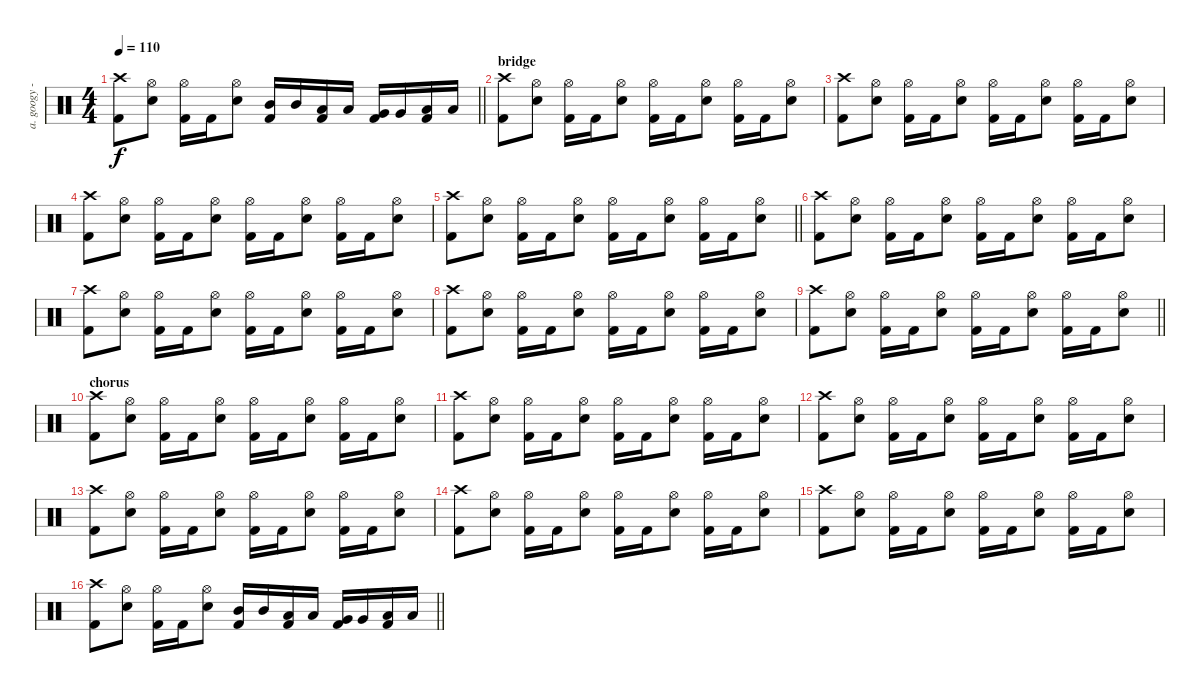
\track ("a. googy - drums" "a. googy -") {instrument percussion}
\staff {score}
\articulation defaults
\ts (4 4)
\tempo 110
\clef neutral
\barLineRight lightlight
\ks c
("Crash high (hit)" "Kick (hit) 2").8{dy f} ("Hi-Hat (open)" "Snare (hit) 2").8 ("Hi-Hat (open)" "Kick (hit) 2").16 "Kick (hit) 2".16 ("Hi-Hat (open)" "Snare (hit) 2").8 ("Mid Tom (hit)" "Kick (hit) 2").16 "Mid Tom (hit)".16 ("Low Tom (hit)" "Kick (hit) 2").16 "Low Tom (hit)".16 ("Very Low Tom (hit)" "Kick (hit) 2").16 "Very Low Tom (hit)".16 ("Low Floor Tom (hit)" "Kick (hit) 2").16 "Low Floor Tom (hit)".16 |
\section ("" "bridge")
("Crash high (hit)" "Kick (hit) 2").8 ("Hi-Hat (open)" "Snare (hit) 2").8 ("Hi-Hat (open)" "Kick (hit) 2").16 "Kick (hit) 2".16 ("Hi-Hat (open)" "Snare (hit) 2").8 ("Hi-Hat (open)" "Kick (hit) 2").16 "Kick (hit) 2".16 ("Hi-Hat (open)" "Snare (hit) 2").8 ("Hi-Hat (open)" "Kick (hit) 2").16 "Kick (hit) 2".16 ("Hi-Hat (open)" "Snare (hit) 2").8 |
("Crash high (hit)" "Kick (hit) 2").8 ("Hi-Hat (open)" "Snare (hit) 2").8 ("Hi-Hat (open)" "Kick (hit) 2").16 "Kick (hit) 2".16 ("Hi-Hat (open)" "Snare (hit) 2").8 ("Hi-Hat (open)" "Kick (hit) 2").16 "Kick (hit) 2".16 ("Hi-Hat (open)" "Snare (hit) 2").8 ("Hi-Hat (open)" "Kick (hit) 2").16 "Kick (hit) 2".16 ("Hi-Hat (open)" "Snare (hit) 2").8 |
("Crash high (hit)" "Kick (hit) 2").8 ("Hi-Hat (open)" "Snare (hit) 2").8 ("Hi-Hat (open)" "Kick (hit) 2").16 "Kick (hit) 2".16 ("Hi-Hat (open)" "Snare (hit) 2").8 ("Hi-Hat (open)" "Kick (hit) 2").16 "Kick (hit) 2".16 ("Hi-Hat (open)" "Snare (hit) 2").8 ("Hi-Hat (open)" "Kick (hit) 2").16 "Kick (hit) 2".16 ("Hi-Hat (open)" "Snare (hit) 2").8 |
\barLineRight lightlight
("Crash high (hit)" "Kick (hit) 2").8 ("Hi-Hat (open)" "Snare (hit) 2").8 ("Hi-Hat (open)" "Kick (hit) 2").16 "Kick (hit) 2".16 ("Hi-Hat (open)" "Snare (hit) 2").8 ("Hi-Hat (open)" "Kick (hit) 2").16 "Kick (hit) 2".16 ("Hi-Hat (open)" "Snare (hit) 2").8 ("Hi-Hat (open)" "Kick (hit) 2").16 "Kick (hit) 2".16 ("Hi-Hat (open)" "Snare (hit) 2").8 |
("Crash high (hit)" "Kick (hit) 2").8 ("Hi-Hat (open)" "Snare (hit) 2").8 ("Hi-Hat (open)" "Kick (hit) 2").16 "Kick (hit) 2".16 ("Hi-Hat (open)" "Snare (hit) 2").8 ("Hi-Hat (open)" "Kick (hit) 2").16 "Kick (hit) 2".16 ("Hi-Hat (open)" "Snare (hit) 2").8 ("Hi-Hat (open)" "Kick (hit) 2").16 "Kick (hit) 2".16 ("Hi-Hat (open)" "Snare (hit) 2").8 |
("Crash high (hit)" "Kick (hit) 2").8 ("Hi-Hat (open)" "Snare (hit) 2").8 ("Hi-Hat (open)" "Kick (hit) 2").16 "Kick (hit) 2".16 ("Hi-Hat (open)" "Snare (hit) 2").8 ("Hi-Hat (open)" "Kick (hit) 2").16 "Kick (hit) 2".16 ("Hi-Hat (open)" "Snare (hit) 2").8 ("Hi-Hat (open)" "Kick (hit) 2").16 "Kick (hit) 2".16 ("Hi-Hat (open)" "Snare (hit) 2").8 |
("Crash high (hit)" "Kick (hit) 2").8 ("Hi-Hat (open)" "Snare (hit) 2").8 ("Hi-Hat (open)" "Kick (hit) 2").16 "Kick (hit) 2".16 ("Hi-Hat (open)" "Snare (hit) 2").8 ("Hi-Hat (open)" "Kick (hit) 2").16 "Kick (hit) 2".16 ("Hi-Hat (open)" "Snare (hit) 2").8 ("Hi-Hat (open)" "Kick (hit) 2").16 "Kick (hit) 2".16 ("Hi-Hat (open)" "Snare (hit) 2").8 |
\barLineRight lightlight
("Crash high (hit)" "Kick (hit) 2").8 ("Hi-Hat (open)" "Snare (hit) 2").8 ("Hi-Hat (open)" "Kick (hit) 2").16 "Kick (hit) 2".16 ("Hi-Hat (open)" "Snare (hit) 2").8 ("Hi-Hat (open)" "Kick (hit) 2").16 "Kick (hit) 2".16 ("Hi-Hat (open)" "Snare (hit) 2").8 ("Hi-Hat (open)" "Kick (hit) 2").16 "Kick (hit) 2".16 ("Hi-Hat (open)" "Snare (hit) 2").8 |
\section ("" "chorus")
("Crash high (hit)" "Kick (hit) 2").8 ("Hi-Hat (open)" "Snare (hit) 2").8 ("Hi-Hat (open)" "Kick (hit) 2").16 "Kick (hit) 2".16 ("Hi-Hat (open)" "Snare (hit) 2").8 ("Hi-Hat (open)" "Kick (hit) 2").16 "Kick (hit) 2".16 ("Hi-Hat (open)" "Snare (hit) 2").8 ("Hi-Hat (open)" "Kick (hit) 2").16 "Kick (hit) 2".16 ("Hi-Hat (open)" "Snare (hit) 2").8 |
("Crash high (hit)" "Kick (hit) 2").8 ("Hi-Hat (open)" "Snare (hit) 2").8 ("Hi-Hat (open)" "Kick (hit) 2").16 "Kick (hit) 2".16 ("Hi-Hat (open)" "Snare (hit) 2").8 ("Hi-Hat (open)" "Kick (hit) 2").16 "Kick (hit) 2".16 ("Hi-Hat (open)" "Snare (hit) 2").8 ("Hi-Hat (open)" "Kick (hit) 2").16 "Kick (hit) 2".16 ("Hi-Hat (open)" "Snare (hit) 2").8 |
("Crash high (hit)" "Kick (hit) 2").8 ("Hi-Hat (open)" "Snare (hit) 2").8 ("Hi-Hat (open)" "Kick (hit) 2").16 "Kick (hit) 2".16 ("Hi-Hat (open)" "Snare (hit) 2").8 ("Hi-Hat (open)" "Kick (hit) 2").16 "Kick (hit) 2".16 ("Hi-Hat (open)" "Snare (hit) 2").8 ("Hi-Hat (open)" "Kick (hit) 2").16 "Kick (hit) 2".16 ("Hi-Hat (open)" "Snare (hit) 2").8 |
("Crash high (hit)" "Kick (hit) 2").8 ("Hi-Hat (open)" "Snare (hit) 2").8 ("Hi-Hat (open)" "Kick (hit) 2").16 "Kick (hit) 2".16 ("Hi-Hat (open)" "Snare (hit) 2").8 ("Hi-Hat (open)" "Kick (hit) 2").16 "Kick (hit) 2".16 ("Hi-Hat (open)" "Snare (hit) 2").8 ("Hi-Hat (open)" "Kick (hit) 2").16 "Kick (hit) 2".16 ("Hi-Hat (open)" "Snare (hit) 2").8 |
("Crash high (hit)" "Kick (hit) 2").8 ("Hi-Hat (open)" "Snare (hit) 2").8 ("Hi-Hat (open)" "Kick (hit) 2").16 "Kick (hit) 2".16 ("Hi-Hat (open)" "Snare (hit) 2").8 ("Hi-Hat (open)" "Kick (hit) 2").16 "Kick (hit) 2".16 ("Hi-Hat (open)" "Snare (hit) 2").8 ("Hi-Hat (open)" "Kick (hit) 2").16 "Kick (hit) 2".16 ("Hi-Hat (open)" "Snare (hit) 2").8 |
("Crash high (hit)" "Kick (hit) 2").8 ("Hi-Hat (open)" "Snare (hit) 2").8 ("Hi-Hat (open)" "Kick (hit) 2").16 "Kick (hit) 2".16 ("Hi-Hat (open)" "Snare (hit) 2").8 ("Hi-Hat (open)" "Kick (hit) 2").16 "Kick (hit) 2".16 ("Hi-Hat (open)" "Snare (hit) 2").8 ("Hi-Hat (open)" "Kick (hit) 2").16 "Kick (hit) 2".16 ("Hi-Hat (open)" "Snare (hit) 2").8 |
\barLineRight lightlight
("Crash high (hit)" "Kick (hit) 2").8 ("Hi-Hat (open)" "Snare (hit) 2").8 ("Hi-Hat (open)" "Kick (hit) 2").16 "Kick (hit) 2".16 ("Hi-Hat (open)" "Snare (hit) 2").8 ("Mid Tom (hit)" "Kick (hit) 2").16 "Mid Tom (hit)".16 ("Low Tom (hit)" "Kick (hit) 2").16 "Low Tom (hit)".16 ("Very Low Tom (hit)" "Kick (hit) 2").16 "Very Low Tom (hit)".16 ("Low Floor Tom (hit)" "Kick (hit) 2").16 "Low Floor Tom (hit)".16
